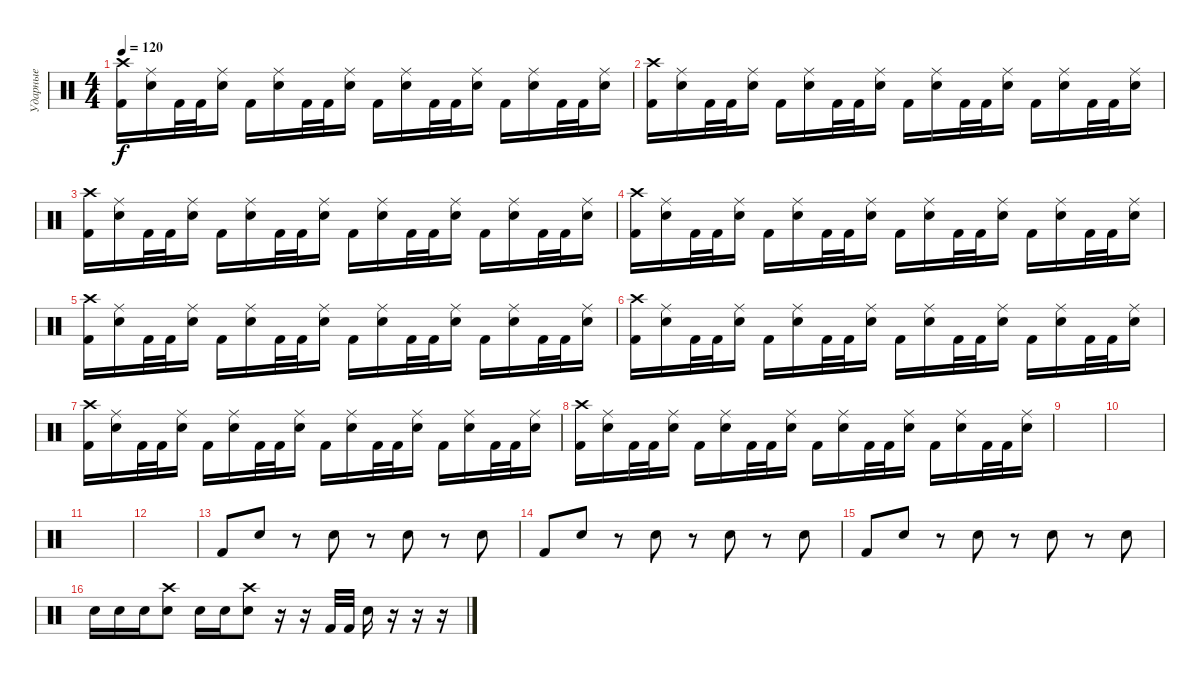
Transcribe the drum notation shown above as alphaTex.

\track ("Ударные" "Ударные") {instrument percussion}
\staff {score}
\articulation defaults
\ts (4 4)
\tempo 120
\clef neutral
\ks c
("Kick (hit) 2" "Crash high (hit)").16{dy f} ("Electric Snare (hit)" "Ride (middle)").16 "Kick (hit) 2".32 "Kick (hit) 2".32 ("Electric Snare (hit)" "Ride (middle)").16 "Kick (hit) 2".16 ("Electric Snare (hit)" "Ride (middle)").16 "Kick (hit) 2".32 "Kick (hit) 2".32 ("Electric Snare (hit)" "Ride (middle)").16 "Kick (hit) 2".16 ("Electric Snare (hit)" "Ride (middle)").16 "Kick (hit) 2".32 "Kick (hit) 2".32 ("Electric Snare (hit)" "Ride (middle)").16 "Kick (hit) 2".16 ("Electric Snare (hit)" "Ride (middle)").16 "Kick (hit) 2".32 "Kick (hit) 2".32 ("Electric Snare (hit)" "Ride (middle)").16 |
("Kick (hit) 2" "Crash high (hit)").16 ("Electric Snare (hit)" "Ride (middle)").16 "Kick (hit) 2".32 "Kick (hit) 2".32 ("Electric Snare (hit)" "Ride (middle)").16 "Kick (hit) 2".16 ("Electric Snare (hit)" "Ride (middle)").16 "Kick (hit) 2".32 "Kick (hit) 2".32 ("Electric Snare (hit)" "Ride (middle)").16 "Kick (hit) 2".16 ("Electric Snare (hit)" "Ride (middle)").16 "Kick (hit) 2".32 "Kick (hit) 2".32 ("Electric Snare (hit)" "Ride (middle)").16 "Kick (hit) 2".16 ("Electric Snare (hit)" "Ride (middle)").16 "Kick (hit) 2".32 "Kick (hit) 2".32 ("Electric Snare (hit)" "Ride (middle)").16 |
("Kick (hit) 2" "Crash high (hit)").16 ("Electric Snare (hit)" "Ride (middle)").16 "Kick (hit) 2".32 "Kick (hit) 2".32 ("Electric Snare (hit)" "Ride (middle)").16 "Kick (hit) 2".16 ("Electric Snare (hit)" "Ride (middle)").16 "Kick (hit) 2".32 "Kick (hit) 2".32 ("Electric Snare (hit)" "Ride (middle)").16 "Kick (hit) 2".16 ("Electric Snare (hit)" "Ride (middle)").16 "Kick (hit) 2".32 "Kick (hit) 2".32 ("Electric Snare (hit)" "Ride (middle)").16 "Kick (hit) 2".16 ("Electric Snare (hit)" "Ride (middle)").16 "Kick (hit) 2".32 "Kick (hit) 2".32 ("Electric Snare (hit)" "Ride (middle)").16 |
("Kick (hit) 2" "Crash high (hit)").16 ("Electric Snare (hit)" "Ride (middle)").16 "Kick (hit) 2".32 "Kick (hit) 2".32 ("Electric Snare (hit)" "Ride (middle)").16 "Kick (hit) 2".16 ("Electric Snare (hit)" "Ride (middle)").16 "Kick (hit) 2".32 "Kick (hit) 2".32 ("Electric Snare (hit)" "Ride (middle)").16 "Kick (hit) 2".16 ("Electric Snare (hit)" "Ride (middle)").16 "Kick (hit) 2".32 "Kick (hit) 2".32 ("Electric Snare (hit)" "Ride (middle)").16 "Kick (hit) 2".16 ("Electric Snare (hit)" "Ride (middle)").16 "Kick (hit) 2".32 "Kick (hit) 2".32 ("Electric Snare (hit)" "Ride (middle)").16 |
("Kick (hit) 2" "Crash high (hit)").16 ("Electric Snare (hit)" "Ride (middle)").16 "Kick (hit) 2".32 "Kick (hit) 2".32 ("Electric Snare (hit)" "Ride (middle)").16 "Kick (hit) 2".16 ("Electric Snare (hit)" "Ride (middle)").16 "Kick (hit) 2".32 "Kick (hit) 2".32 ("Electric Snare (hit)" "Ride (middle)").16 "Kick (hit) 2".16 ("Electric Snare (hit)" "Ride (middle)").16 "Kick (hit) 2".32 "Kick (hit) 2".32 ("Electric Snare (hit)" "Ride (middle)").16 "Kick (hit) 2".16 ("Electric Snare (hit)" "Ride (middle)").16 "Kick (hit) 2".32 "Kick (hit) 2".32 ("Electric Snare (hit)" "Ride (middle)").16 |
("Kick (hit) 2" "Crash high (hit)").16 ("Electric Snare (hit)" "Ride (middle)").16 "Kick (hit) 2".32 "Kick (hit) 2".32 ("Electric Snare (hit)" "Ride (middle)").16 "Kick (hit) 2".16 ("Electric Snare (hit)" "Ride (middle)").16 "Kick (hit) 2".32 "Kick (hit) 2".32 ("Electric Snare (hit)" "Ride (middle)").16 "Kick (hit) 2".16 ("Electric Snare (hit)" "Ride (middle)").16 "Kick (hit) 2".32 "Kick (hit) 2".32 ("Electric Snare (hit)" "Ride (middle)").16 "Kick (hit) 2".16 ("Electric Snare (hit)" "Ride (middle)").16 "Kick (hit) 2".32 "Kick (hit) 2".32 ("Electric Snare (hit)" "Ride (middle)").16 |
("Kick (hit) 2" "Crash high (hit)").16 ("Electric Snare (hit)" "Ride (middle)").16 "Kick (hit) 2".32 "Kick (hit) 2".32 ("Electric Snare (hit)" "Ride (middle)").16 "Kick (hit) 2".16 ("Electric Snare (hit)" "Ride (middle)").16 "Kick (hit) 2".32 "Kick (hit) 2".32 ("Electric Snare (hit)" "Ride (middle)").16 "Kick (hit) 2".16 ("Electric Snare (hit)" "Ride (middle)").16 "Kick (hit) 2".32 "Kick (hit) 2".32 ("Electric Snare (hit)" "Ride (middle)").16 "Kick (hit) 2".16 ("Electric Snare (hit)" "Ride (middle)").16 "Kick (hit) 2".32 "Kick (hit) 2".32 ("Electric Snare (hit)" "Ride (middle)").16 |
("Kick (hit) 2" "Crash high (hit)").16 ("Electric Snare (hit)" "Ride (middle)").16 "Kick (hit) 2".32 "Kick (hit) 2".32 ("Electric Snare (hit)" "Ride (middle)").16 "Kick (hit) 2".16 ("Electric Snare (hit)" "Ride (middle)").16 "Kick (hit) 2".32 "Kick (hit) 2".32 ("Electric Snare (hit)" "Ride (middle)").16 "Kick (hit) 2".16 ("Electric Snare (hit)" "Ride (middle)").16 "Kick (hit) 2".32 "Kick (hit) 2".32 ("Electric Snare (hit)" "Ride (middle)").16 "Kick (hit) 2".16 ("Electric Snare (hit)" "Ride (middle)").16 "Kick (hit) 2".32 "Kick (hit) 2".32 ("Electric Snare (hit)" "Ride (middle)").16 |
|
|
|
|
"Kick (hit) 2".8 "Electric Snare (hit)".8 r.8 "Electric Snare (hit)".8 r.8 "Electric Snare (hit)".8 r.8 "Electric Snare (hit)".8 |
"Kick (hit) 2".8 "Electric Snare (hit)".8 r.8 "Electric Snare (hit)".8 r.8 "Electric Snare (hit)".8 r.8 "Electric Snare (hit)".8 |
"Kick (hit) 2".8 "Electric Snare (hit)".8 r.8 "Electric Snare (hit)".8 r.8 "Electric Snare (hit)".8 r.8 "Electric Snare (hit)".8 |
"Electric Snare (hit)".16 "Electric Snare (hit)".16 "Electric Snare (hit)".16 ("Crash high (hit)" "Electric Snare (hit)").8 "Electric Snare (hit)".16 "Electric Snare (hit)".16 ("Crash high (hit)" "Electric Snare (hit)").8 r.16 r.16 "Kick (hit) 2".32 "Kick (hit) 2".32 "Electric Snare (hit)".16 r.16 r.16 r.16
